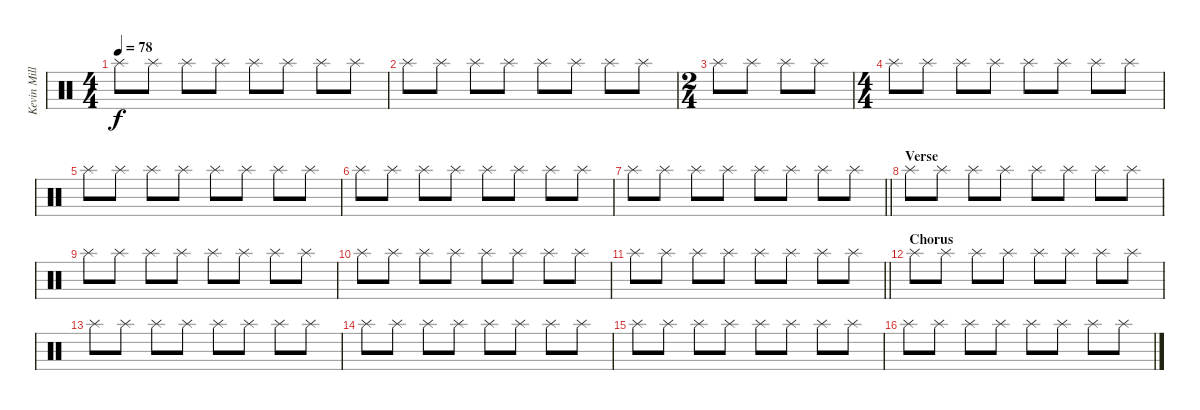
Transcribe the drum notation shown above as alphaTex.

\track ("Kevin Miller (Drums)" "Kevin Mill") {instrument percussion}
\staff {score}
\articulation defaults
\ts (4 4)
\tempo 78
\clef neutral
\ks c "Splash (hit)".8{dy f} "Splash (hit)".8 "Splash (hit)".8 "Splash (hit)".8 "Splash (hit)".8 "Splash (hit)".8 "Splash (hit)".8 "Splash (hit)".8
|
"Splash (hit)".8 "Splash (hit)".8 "Splash (hit)".8 "Splash (hit)".8 "Splash (hit)".8 "Splash (hit)".8 "Splash (hit)".8 "Splash (hit)".8 |
\ts (2 4)
"Splash (hit)".8 "Splash (hit)".8 "Splash (hit)".8 "Splash (hit)".8 |
\ts (4 4)
"Splash (hit)".8 "Splash (hit)".8 "Splash (hit)".8 "Splash (hit)".8 "Splash (hit)".8 "Splash (hit)".8 "Splash (hit)".8 "Splash (hit)".8 |
"Splash (hit)".8 "Splash (hit)".8 "Splash (hit)".8 "Splash (hit)".8 "Splash (hit)".8 "Splash (hit)".8 "Splash (hit)".8 "Splash (hit)".8 |
"Splash (hit)".8 "Splash (hit)".8 "Splash (hit)".8 "Splash (hit)".8 "Splash (hit)".8 "Splash (hit)".8 "Splash (hit)".8 "Splash (hit)".8 |
\barLineRight lightlight "Splash (hit)".8 "Splash (hit)".8 "Splash (hit)".8 "Splash (hit)".8 "Splash (hit)".8 "Splash (hit)".8 "Splash (hit)".8 "Splash (hit)".8
|
\section ("" "Verse")
"Splash (hit)".8 "Splash (hit)".8 "Splash (hit)".8 "Splash (hit)".8 "Splash (hit)".8 "Splash (hit)".8 "Splash (hit)".8 "Splash (hit)".8 |
"Splash (hit)".8 "Splash (hit)".8 "Splash (hit)".8 "Splash (hit)".8 "Splash (hit)".8 "Splash (hit)".8 "Splash (hit)".8 "Splash (hit)".8 |
"Splash (hit)".8 "Splash (hit)".8 "Splash (hit)".8 "Splash (hit)".8 "Splash (hit)".8 "Splash (hit)".8 "Splash (hit)".8 "Splash (hit)".8 |
\barLineRight lightlight "Splash (hit)".8 "Splash (hit)".8 "Splash (hit)".8 "Splash (hit)".8 "Splash (hit)".8 "Splash (hit)".8 "Splash (hit)".8 "Splash (hit)".8
|
\section ("" "Chorus")
"Splash (hit)".8 "Splash (hit)".8 "Splash (hit)".8 "Splash (hit)".8 "Splash (hit)".8 "Splash (hit)".8 "Splash (hit)".8 "Splash (hit)".8 |
"Splash (hit)".8 "Splash (hit)".8 "Splash (hit)".8 "Splash (hit)".8 "Splash (hit)".8 "Splash (hit)".8 "Splash (hit)".8 "Splash (hit)".8 |
"Splash (hit)".8 "Splash (hit)".8 "Splash (hit)".8 "Splash (hit)".8 "Splash (hit)".8 "Splash (hit)".8 "Splash (hit)".8 "Splash (hit)".8 |
"Splash (hit)".8 "Splash (hit)".8 "Splash (hit)".8 "Splash (hit)".8 "Splash (hit)".8 "Splash (hit)".8 "Splash (hit)".8 "Splash (hit)".8 |
"Splash (hit)".8 "Splash (hit)".8 "Splash (hit)".8 "Splash (hit)".8 "Splash (hit)".8 "Splash (hit)".8 "Splash (hit)".8 "Splash (hit)".8
